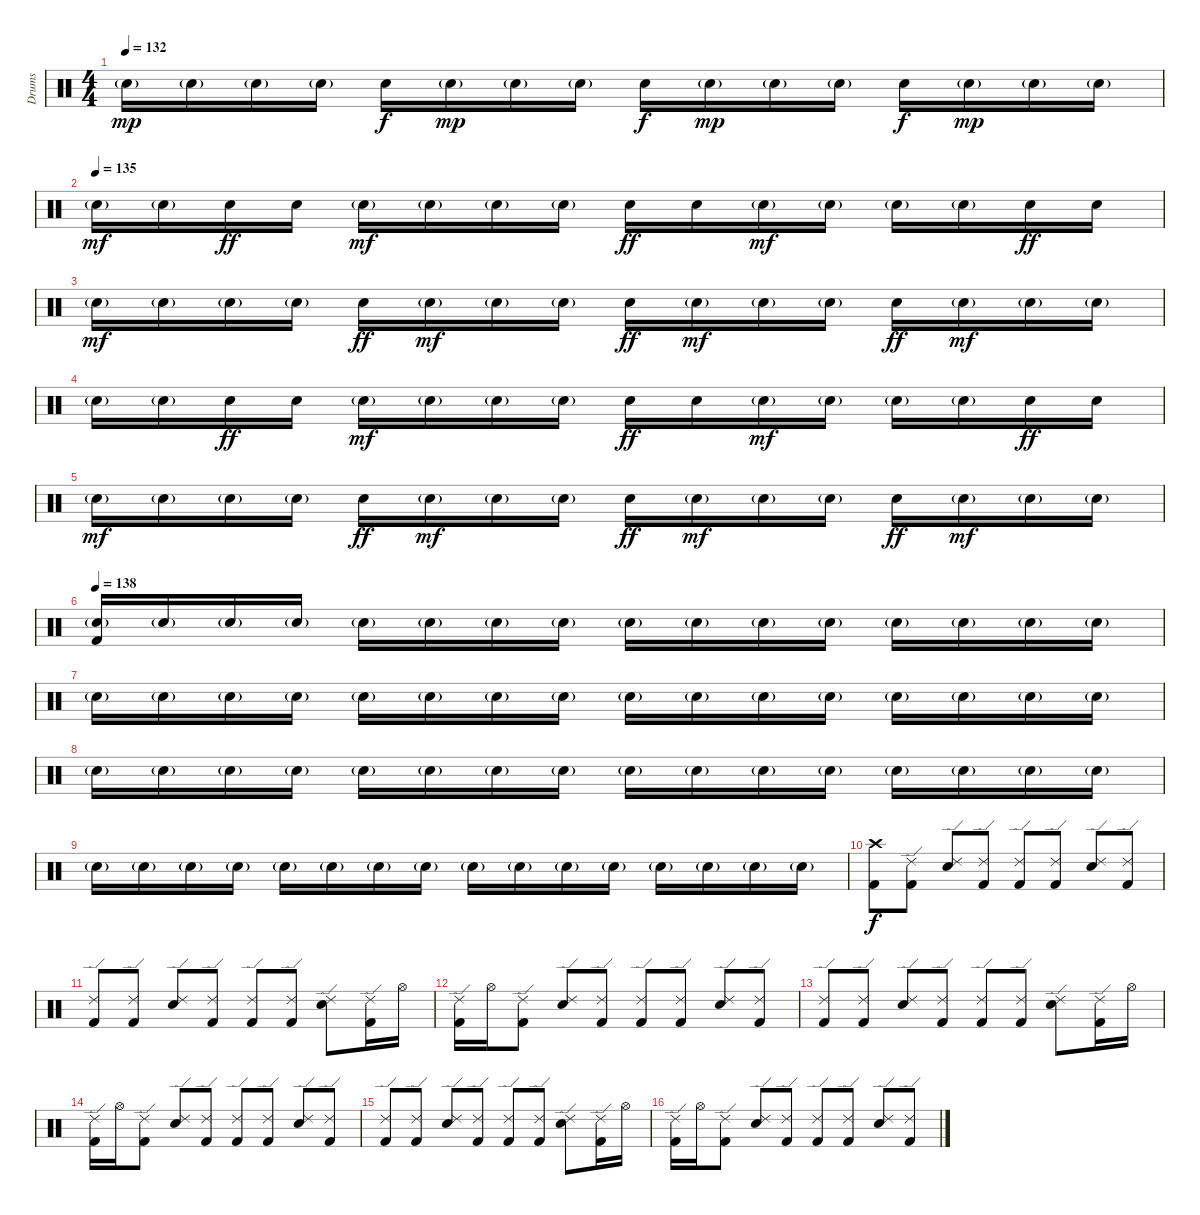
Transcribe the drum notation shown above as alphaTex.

\track ("Drums" "Drums") {instrument percussion}
\staff {score}
\articulation defaults
\ts (4 4)
\tempo 132
\clef neutral
\ks c "Snare (hit) 2"{g}.16{dy mp} "Snare (hit) 2"{g}.16 "Snare (hit) 2"{g}.16 "Snare (hit) 2"{g}.16 "Snare (hit) 2".16{dy f} "Snare (hit) 2"{g}.16{dy mp} "Snare (hit) 2"{g}.16 "Snare (hit) 2"{g}.16 "Snare (hit) 2".16{dy f} "Snare (hit) 2"{g}.16{dy mp} "Snare (hit) 2"{g}.16 "Snare (hit) 2"{g}.16 "Snare (hit) 2".16{dy f} "Snare (hit) 2"{g}.16{dy mp} "Snare (hit) 2"{g}.16 "Snare (hit) 2"{g}.16
|
\tempo (135)
"Snare (hit) 2"{g}.16{dy mf} "Snare (hit) 2"{g}.16 "Snare (hit) 2".16{dy ff} "Snare (hit) 2".16 "Snare (hit) 2"{g}.16{dy mf} "Snare (hit) 2"{g}.16 "Snare (hit) 2"{g}.16 "Snare (hit) 2"{g}.16 "Snare (hit) 2".16{dy ff} "Snare (hit) 2".16 "Snare (hit) 2"{g}.16{dy mf} "Snare (hit) 2"{g}.16 "Snare (hit) 2"{g}.16 "Snare (hit) 2"{g}.16 "Snare (hit) 2".16{dy ff} "Snare (hit) 2".16 |
"Snare (hit) 2"{g}.16{dy mf} "Snare (hit) 2"{g}.16 "Snare (hit) 2"{g}.16 "Snare (hit) 2"{g}.16 "Snare (hit) 2".16{dy ff} "Snare (hit) 2"{g}.16{dy mf} "Snare (hit) 2"{g}.16 "Snare (hit) 2"{g}.16 "Snare (hit) 2".16{dy ff} "Snare (hit) 2"{g}.16{dy mf} "Snare (hit) 2"{g}.16 "Snare (hit) 2"{g}.16 "Snare (hit) 2".16{dy ff} "Snare (hit) 2"{g}.16{dy mf} "Snare (hit) 2"{g}.16 "Snare (hit) 2"{g}.16 |
"Snare (hit) 2"{g}.16 "Snare (hit) 2"{g}.16 "Snare (hit) 2".16{dy ff} "Snare (hit) 2".16 "Snare (hit) 2"{g}.16{dy mf} "Snare (hit) 2"{g}.16 "Snare (hit) 2"{g}.16 "Snare (hit) 2"{g}.16 "Snare (hit) 2".16{dy ff} "Snare (hit) 2".16 "Snare (hit) 2"{g}.16{dy mf} "Snare (hit) 2"{g}.16 "Snare (hit) 2"{g}.16 "Snare (hit) 2"{g}.16 "Snare (hit) 2".16{dy ff} "Snare (hit) 2".16 |
"Snare (hit) 2"{g}.16{dy mf} "Snare (hit) 2"{g}.16 "Snare (hit) 2"{g}.16 "Snare (hit) 2"{g}.16 "Snare (hit) 2".16{dy ff} "Snare (hit) 2"{g}.16{dy mf} "Snare (hit) 2"{g}.16 "Snare (hit) 2"{g}.16 "Snare (hit) 2".16{dy ff} "Snare (hit) 2"{g}.16{dy mf} "Snare (hit) 2"{g}.16 "Snare (hit) 2"{g}.16 "Snare (hit) 2".16{dy ff} "Snare (hit) 2"{g}.16{dy mf} "Snare (hit) 2"{g}.16 "Snare (hit) 2"{g}.16 |
\tempo 138
("Snare (hit) 2"{g} "Kick (hit) 2").16{volume 16} "Snare (hit) 2"{g}.16 "Snare (hit) 2"{g}.16 "Snare (hit) 2"{g}.16 "Snare (hit) 2"{g}.16 "Snare (hit) 2"{g}.16 "Snare (hit) 2"{g}.16 "Snare (hit) 2"{g}.16 "Snare (hit) 2"{g}.16 "Snare (hit) 2"{g}.16 "Snare (hit) 2"{g}.16 "Snare (hit) 2"{g}.16 "Snare (hit) 2"{g}.16 "Snare (hit) 2"{g}.16 "Snare (hit) 2"{g}.16 "Snare (hit) 2"{g}.16 |
"Snare (hit) 2"{g}.16 "Snare (hit) 2"{g}.16 "Snare (hit) 2"{g}.16 "Snare (hit) 2"{g}.16 "Snare (hit) 2"{g}.16 "Snare (hit) 2"{g}.16 "Snare (hit) 2"{g}.16 "Snare (hit) 2"{g}.16 "Snare (hit) 2"{g}.16 "Snare (hit) 2"{g}.16 "Snare (hit) 2"{g}.16 "Snare (hit) 2"{g}.16 "Snare (hit) 2"{g}.16 "Snare (hit) 2"{g}.16 "Snare (hit) 2"{g}.16 "Snare (hit) 2"{g}.16 |
"Snare (hit) 2"{g}.16 "Snare (hit) 2"{g}.16 "Snare (hit) 2"{g}.16 "Snare (hit) 2"{g}.16 "Snare (hit) 2"{g}.16 "Snare (hit) 2"{g}.16 "Snare (hit) 2"{g}.16 "Snare (hit) 2"{g}.16 "Snare (hit) 2"{g}.16 "Snare (hit) 2"{g}.16 "Snare (hit) 2"{g}.16 "Snare (hit) 2"{g}.16 "Snare (hit) 2"{g}.16 "Snare (hit) 2"{g}.16 "Snare (hit) 2"{g}.16 "Snare (hit) 2"{g}.16 |
"Snare (hit) 2"{g}.16 "Snare (hit) 2"{g}.16 "Snare (hit) 2"{g}.16 "Snare (hit) 2"{g}.16 "Snare (hit) 2"{g}.16 "Snare (hit) 2"{g}.16 "Snare (hit) 2"{g}.16 "Snare (hit) 2"{g}.16 "Snare (hit) 2"{g}.16 "Snare (hit) 2"{g}.16 "Snare (hit) 2"{g}.16 "Snare (hit) 2"{g}.16 "Snare (hit) 2"{g}.16 "Snare (hit) 2"{g}.16 "Snare (hit) 2"{g}.16 "Snare (hit) 2"{g}.16 |
("Crash high (hit)" "Kick (hit) 2").8{dy f volume 13} ("Ride (edge) 2" "Kick (hit) 2").8 ("Ride (edge) 2" "Snare (hit) 2").8 ("Ride (edge) 2" "Kick (hit) 2").8 ("Ride (edge) 2" "Kick (hit) 2").8 ("Ride (edge) 2" "Kick (hit) 2").8 ("Ride (edge) 2" "Snare (hit) 2").8 ("Ride (edge) 2" "Kick (hit) 2").8 |
("Ride (edge) 2" "Kick (hit) 2").8 ("Ride (edge) 2" "Kick (hit) 2").8 ("Ride (edge) 2" "Snare (hit) 2").8 ("Ride (edge) 2" "Kick (hit) 2").8 ("Ride (edge) 2" "Kick (hit) 2").8 ("Ride (edge) 2" "Kick (hit) 2").8 ("Ride (edge) 2" "Snare (hit) 2").8 ("Ride (edge) 2" "Kick (hit) 2").16 "Hi-Hat (open)".16 |
("Ride (edge) 2" "Kick (hit) 2").16 "Hi-Hat (open)".16 ("Ride (edge) 2" "Kick (hit) 2").8 ("Ride (edge) 2" "Snare (hit) 2").8 ("Ride (edge) 2" "Kick (hit) 2").8 ("Ride (edge) 2" "Kick (hit) 2").8 ("Ride (edge) 2" "Kick (hit) 2").8 ("Ride (edge) 2" "Snare (hit) 2").8 ("Ride (edge) 2" "Kick (hit) 2").8 |
("Ride (edge) 2" "Kick (hit) 2").8 ("Ride (edge) 2" "Kick (hit) 2").8 ("Ride (edge) 2" "Snare (hit) 2").8 ("Ride (edge) 2" "Kick (hit) 2").8 ("Ride (edge) 2" "Kick (hit) 2").8 ("Ride (edge) 2" "Kick (hit) 2").8 ("Ride (edge) 2" "Snare (hit) 2").8 ("Ride (edge) 2" "Kick (hit) 2").16 "Hi-Hat (open)".16 |
("Ride (edge) 2" "Kick (hit) 2").16 "Hi-Hat (open)".16 ("Ride (edge) 2" "Kick (hit) 2").8 ("Ride (edge) 2" "Snare (hit) 2").8 ("Ride (edge) 2" "Kick (hit) 2").8 ("Ride (edge) 2" "Kick (hit) 2").8 ("Ride (edge) 2" "Kick (hit) 2").8 ("Ride (edge) 2" "Snare (hit) 2").8 ("Ride (edge) 2" "Kick (hit) 2").8 |
("Ride (edge) 2" "Kick (hit) 2").8 ("Ride (edge) 2" "Kick (hit) 2").8 ("Ride (edge) 2" "Snare (hit) 2").8 ("Ride (edge) 2" "Kick (hit) 2").8 ("Ride (edge) 2" "Kick (hit) 2").8 ("Ride (edge) 2" "Kick (hit) 2").8 ("Ride (edge) 2" "Snare (hit) 2").8 ("Ride (edge) 2" "Kick (hit) 2").16 "Hi-Hat (open)".16 |
("Ride (edge) 2" "Kick (hit) 2").16 "Hi-Hat (open)".16 ("Ride (edge) 2" "Kick (hit) 2").8 ("Ride (edge) 2" "Snare (hit) 2").8 ("Ride (edge) 2" "Kick (hit) 2").8 ("Ride (edge) 2" "Kick (hit) 2").8 ("Ride (edge) 2" "Kick (hit) 2").8 ("Ride (edge) 2" "Snare (hit) 2").8 ("Ride (edge) 2" "Kick (hit) 2").8
